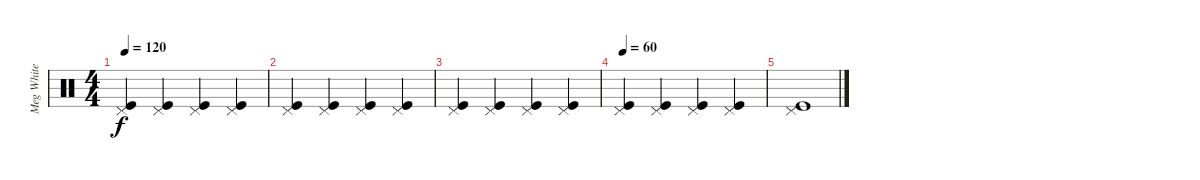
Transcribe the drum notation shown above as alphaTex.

\track ("Meg White (Drums)" "Meg White ") {instrument percussion}
\staff {score}
\articulation defaults
\ts (4 4)
\tempo 120
\clef neutral
\ks c
("Kick (hit)" "Pedal Hi-Hat (hit)").4{dy f} ("Kick (hit)" "Pedal Hi-Hat (hit)").4 ("Kick (hit)" "Pedal Hi-Hat (hit)").4 ("Kick (hit)" "Pedal Hi-Hat (hit)").4 |
("Kick (hit)" "Pedal Hi-Hat (hit)").4 ("Kick (hit)" "Pedal Hi-Hat (hit)").4 ("Kick (hit)" "Pedal Hi-Hat (hit)").4 ("Kick (hit)" "Pedal Hi-Hat (hit)").4 |
("Kick (hit)" "Pedal Hi-Hat (hit)").4 ("Kick (hit)" "Pedal Hi-Hat (hit)").4 ("Kick (hit)" "Pedal Hi-Hat (hit)").4 ("Kick (hit)" "Pedal Hi-Hat (hit)").4 |
\tempo 60
("Kick (hit)" "Pedal Hi-Hat (hit)").4 ("Kick (hit)" "Pedal Hi-Hat (hit)").4 ("Kick (hit)" "Pedal Hi-Hat (hit)").4 ("Kick (hit)" "Pedal Hi-Hat (hit)").4 |
("Kick (hit)" "Pedal Hi-Hat (hit)").1
